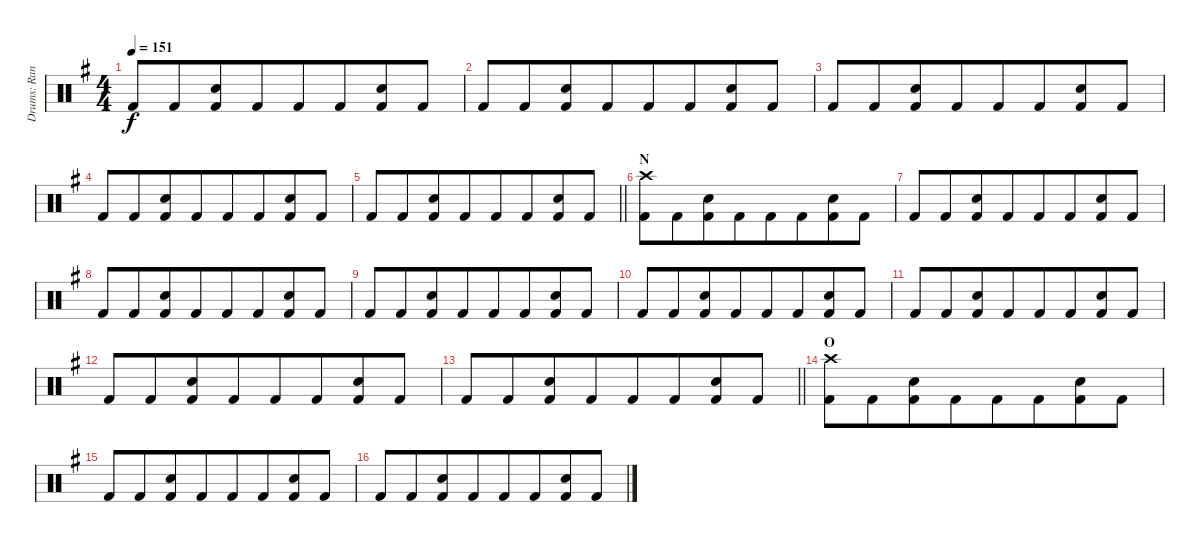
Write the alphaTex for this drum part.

\track ("Drums: Randy" "Drums: Ran") {instrument percussion}
\staff {score}
\articulation defaults
\ts (4 4)
\tempo 151
\clef neutral
\ks g "Kick (hit) 2".8{dy f} "Kick (hit) 2".8{beam merge}
("Snare (hit) 2" "Kick (hit) 2").8 "Kick (hit) 2".8{beam merge} "Kick (hit) 2".8 "Kick (hit) 2".8{beam merge} ("Snare (hit) 2" "Kick (hit) 2").8 "Kick (hit) 2".8 |
"Kick (hit) 2".8 "Kick (hit) 2".8{beam merge} ("Snare (hit) 2" "Kick (hit) 2").8 "Kick (hit) 2".8{beam merge} "Kick (hit) 2".8 "Kick (hit) 2".8{beam merge} ("Snare (hit) 2" "Kick (hit) 2").8 "Kick (hit) 2".8 |
"Kick (hit) 2".8 "Kick (hit) 2".8{beam merge} ("Snare (hit) 2" "Kick (hit) 2").8 "Kick (hit) 2".8{beam merge} "Kick (hit) 2".8 "Kick (hit) 2".8{beam merge} ("Snare (hit) 2" "Kick (hit) 2").8 "Kick (hit) 2".8 |
"Kick (hit) 2".8 "Kick (hit) 2".8{beam merge} ("Snare (hit) 2" "Kick (hit) 2").8 "Kick (hit) 2".8{beam merge} "Kick (hit) 2".8 "Kick (hit) 2".8{beam merge} ("Snare (hit) 2" "Kick (hit) 2").8 "Kick (hit) 2".8 |
\barLineRight lightlight "Kick (hit) 2".8 "Kick (hit) 2".8{beam merge}
("Snare (hit) 2" "Kick (hit) 2").8 "Kick (hit) 2".8{beam merge} "Kick (hit) 2".8 "Kick (hit) 2".8{beam merge} ("Snare (hit) 2" "Kick (hit) 2").8 "Kick (hit) 2".8 |
\section ("" "N")
("Crash high (hit)" "Kick (hit) 2").8 "Kick (hit) 2".8{beam merge} ("Snare (hit) 2" "Kick (hit) 2").8 "Kick (hit) 2".8{beam merge} "Kick (hit) 2".8 "Kick (hit) 2".8{beam merge} ("Snare (hit) 2" "Kick (hit) 2").8 "Kick (hit) 2".8 |
"Kick (hit) 2".8 "Kick (hit) 2".8{beam merge} ("Snare (hit) 2" "Kick (hit) 2").8 "Kick (hit) 2".8{beam merge} "Kick (hit) 2".8 "Kick (hit) 2".8{beam merge} ("Snare (hit) 2" "Kick (hit) 2").8 "Kick (hit) 2".8 |
"Kick (hit) 2".8 "Kick (hit) 2".8{beam merge} ("Snare (hit) 2" "Kick (hit) 2").8 "Kick (hit) 2".8{beam merge} "Kick (hit) 2".8 "Kick (hit) 2".8{beam merge} ("Snare (hit) 2" "Kick (hit) 2").8 "Kick (hit) 2".8 |
"Kick (hit) 2".8 "Kick (hit) 2".8{beam merge} ("Snare (hit) 2" "Kick (hit) 2").8 "Kick (hit) 2".8{beam merge} "Kick (hit) 2".8 "Kick (hit) 2".8{beam merge} ("Snare (hit) 2" "Kick (hit) 2").8 "Kick (hit) 2".8 |
"Kick (hit) 2".8 "Kick (hit) 2".8{beam merge} ("Snare (hit) 2" "Kick (hit) 2").8 "Kick (hit) 2".8{beam merge} "Kick (hit) 2".8 "Kick (hit) 2".8{beam merge} ("Snare (hit) 2" "Kick (hit) 2").8 "Kick (hit) 2".8 |
"Kick (hit) 2".8 "Kick (hit) 2".8{beam merge} ("Snare (hit) 2" "Kick (hit) 2").8 "Kick (hit) 2".8{beam merge} "Kick (hit) 2".8 "Kick (hit) 2".8{beam merge} ("Snare (hit) 2" "Kick (hit) 2").8 "Kick (hit) 2".8 |
"Kick (hit) 2".8 "Kick (hit) 2".8{beam merge} ("Snare (hit) 2" "Kick (hit) 2").8 "Kick (hit) 2".8{beam merge} "Kick (hit) 2".8 "Kick (hit) 2".8{beam merge} ("Snare (hit) 2" "Kick (hit) 2").8 "Kick (hit) 2".8 |
\barLineRight lightlight "Kick (hit) 2".8 "Kick (hit) 2".8{beam merge}
("Snare (hit) 2" "Kick (hit) 2").8 "Kick (hit) 2".8{beam merge} "Kick (hit) 2".8 "Kick (hit) 2".8{beam merge} ("Snare (hit) 2" "Kick (hit) 2").8 "Kick (hit) 2".8 |
\section ("" "O")
("Crash high (hit)" "Kick (hit) 2").8 "Kick (hit) 2".8{beam merge} ("Snare (hit) 2" "Kick (hit) 2").8 "Kick (hit) 2".8{beam merge} "Kick (hit) 2".8 "Kick (hit) 2".8{beam merge} ("Snare (hit) 2" "Kick (hit) 2").8 "Kick (hit) 2".8 |
"Kick (hit) 2".8 "Kick (hit) 2".8{beam merge} ("Snare (hit) 2" "Kick (hit) 2").8 "Kick (hit) 2".8{beam merge} "Kick (hit) 2".8 "Kick (hit) 2".8{beam merge} ("Snare (hit) 2" "Kick (hit) 2").8 "Kick (hit) 2".8 |
"Kick (hit) 2".8 "Kick (hit) 2".8{beam merge} ("Snare (hit) 2" "Kick (hit) 2").8 "Kick (hit) 2".8{beam merge} "Kick (hit) 2".8 "Kick (hit) 2".8{beam merge} ("Snare (hit) 2" "Kick (hit) 2").8 "Kick (hit) 2".8
